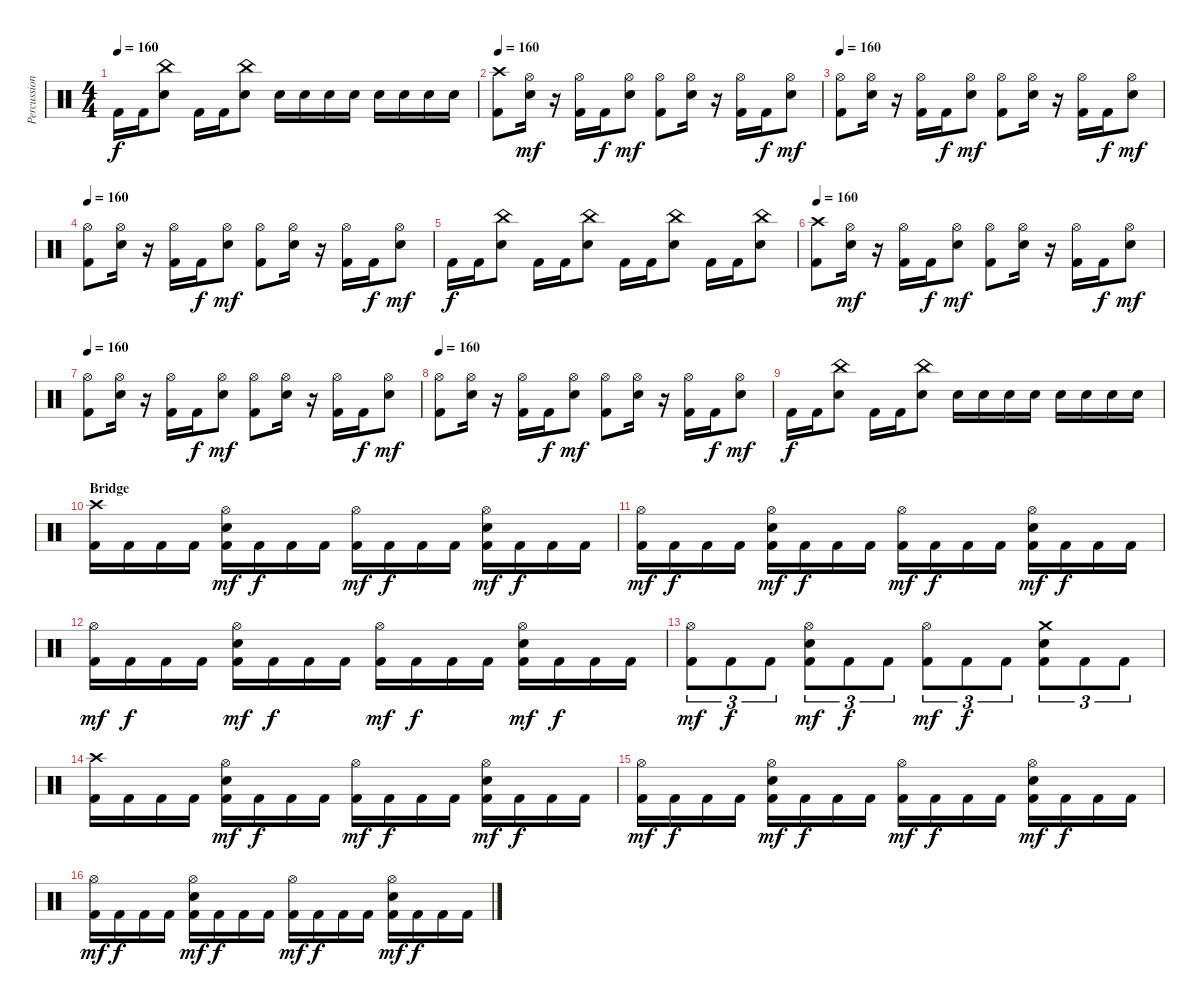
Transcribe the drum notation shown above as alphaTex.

\track ("Percussion" "Percussion") {instrument percussion}
\staff {score}
\articulation defaults
\ts (4 4)
\tempo 160
\clef neutral
\ks c "Kick (hit) 2".16{dy f} "Kick (hit) 2".16
("China (hit)" "Electric Snare (hit)").8 "Kick (hit) 2".16 "Kick (hit) 2".16 ("China (hit)" "Electric Snare (hit)").8 "Electric Snare (hit)".16 "Electric Snare (hit)".16 "Electric Snare (hit)".16 "Electric Snare (hit)".16 "Electric Snare (hit)".16 "Electric Snare (hit)".16 "Electric Snare (hit)".16 "Electric Snare (hit)".16 |
\tempo 160
("Crash high (hit)" "Kick (hit) 2").8 ("Hi-Hat (open)" "Electric Snare (hit)").16{dy mf} r.16 ("Hi-Hat (open)" "Kick (hit) 2").16 "Kick (hit) 2".16{dy f} ("Hi-Hat (open)" "Electric Snare (hit)").8{dy mf} ("Hi-Hat (open)" "Kick (hit) 2").8 ("Hi-Hat (open)" "Electric Snare (hit)").16 r.16 ("Hi-Hat (open)" "Kick (hit) 2").16 "Kick (hit) 2".16{dy f} ("Hi-Hat (open)" "Electric Snare (hit)").8{dy mf} |
\tempo 160
("Hi-Hat (open)" "Kick (hit) 2").8 ("Hi-Hat (open)" "Electric Snare (hit)").16 r.16 ("Hi-Hat (open)" "Kick (hit) 2").16 "Kick (hit) 2".16{dy f} ("Hi-Hat (open)" "Electric Snare (hit)").8{dy mf} ("Hi-Hat (open)" "Kick (hit) 2").8 ("Hi-Hat (open)" "Electric Snare (hit)").16 r.16 ("Hi-Hat (open)" "Kick (hit) 2").16 "Kick (hit) 2".16{dy f} ("Hi-Hat (open)" "Electric Snare (hit)").8{dy mf} |
\tempo 160
("Hi-Hat (open)" "Kick (hit) 2").8 ("Hi-Hat (open)" "Electric Snare (hit)").16 r.16 ("Hi-Hat (open)" "Kick (hit) 2").16 "Kick (hit) 2".16{dy f} ("Hi-Hat (open)" "Electric Snare (hit)").8{dy mf} ("Hi-Hat (open)" "Kick (hit) 2").8 ("Hi-Hat (open)" "Electric Snare (hit)").16 r.16 ("Hi-Hat (open)" "Kick (hit) 2").16 "Kick (hit) 2".16{dy f} ("Hi-Hat (open)" "Electric Snare (hit)").8{dy mf} |
"Kick (hit) 2".16{dy f} "Kick (hit) 2".16 ("China (hit)" "Electric Snare (hit)").8 "Kick (hit) 2".16 "Kick (hit) 2".16 ("China (hit)" "Electric Snare (hit)").8 "Kick (hit) 2".16 "Kick (hit) 2".16 ("China (hit)" "Electric Snare (hit)").8 "Kick (hit) 2".16 "Kick (hit) 2".16 ("China (hit)" "Electric Snare (hit)").8 |
\tempo 160
("Crash high (hit)" "Kick (hit) 2").8 ("Hi-Hat (open)" "Electric Snare (hit)").16{dy mf} r.16 ("Hi-Hat (open)" "Kick (hit) 2").16 "Kick (hit) 2".16{dy f} ("Hi-Hat (open)" "Electric Snare (hit)").8{dy mf} ("Hi-Hat (open)" "Kick (hit) 2").8 ("Hi-Hat (open)" "Electric Snare (hit)").16 r.16 ("Hi-Hat (open)" "Kick (hit) 2").16 "Kick (hit) 2".16{dy f} ("Hi-Hat (open)" "Electric Snare (hit)").8{dy mf} |
\tempo 160
("Hi-Hat (open)" "Kick (hit) 2").8 ("Hi-Hat (open)" "Electric Snare (hit)").16 r.16 ("Hi-Hat (open)" "Kick (hit) 2").16 "Kick (hit) 2".16{dy f} ("Hi-Hat (open)" "Electric Snare (hit)").8{dy mf} ("Hi-Hat (open)" "Kick (hit) 2").8 ("Hi-Hat (open)" "Electric Snare (hit)").16 r.16 ("Hi-Hat (open)" "Kick (hit) 2").16 "Kick (hit) 2".16{dy f} ("Hi-Hat (open)" "Electric Snare (hit)").8{dy mf} |
\tempo 160
("Hi-Hat (open)" "Kick (hit) 2").8 ("Hi-Hat (open)" "Electric Snare (hit)").16 r.16 ("Hi-Hat (open)" "Kick (hit) 2").16 "Kick (hit) 2".16{dy f} ("Hi-Hat (open)" "Electric Snare (hit)").8{dy mf} ("Hi-Hat (open)" "Kick (hit) 2").8 ("Hi-Hat (open)" "Electric Snare (hit)").16 r.16 ("Hi-Hat (open)" "Kick (hit) 2").16 "Kick (hit) 2".16{dy f} ("Hi-Hat (open)" "Electric Snare (hit)").8{dy mf} |
"Kick (hit) 2".16{dy f} "Kick (hit) 2".16 ("China (hit)" "Electric Snare (hit)").8 "Kick (hit) 2".16 "Kick (hit) 2".16 ("China (hit)" "Electric Snare (hit)").8 "Electric Snare (hit)".16 "Electric Snare (hit)".16 "Electric Snare (hit)".16 "Electric Snare (hit)".16 "Electric Snare (hit)".16 "Electric Snare (hit)".16 "Electric Snare (hit)".16 "Electric Snare (hit)".16 |
\section ("" "Bridge")
("Crash high (hit)" "Kick (hit) 2").16 "Kick (hit) 2".16 "Kick (hit) 2".16 "Kick (hit) 2".16 ("Hi-Hat (open)" "Electric Snare (hit)" "Kick (hit) 2").16{dy mf} "Kick (hit) 2".16{dy f} "Kick (hit) 2".16 "Kick (hit) 2".16 ("Hi-Hat (open)" "Kick (hit) 2").16{dy mf} "Kick (hit) 2".16{dy f} "Kick (hit) 2".16 "Kick (hit) 2".16 ("Hi-Hat (open)" "Electric Snare (hit)" "Kick (hit) 2").16{dy mf} "Kick (hit) 2".16{dy f} "Kick (hit) 2".16 "Kick (hit) 2".16 |
("Hi-Hat (open)" "Kick (hit) 2").16{dy mf} "Kick (hit) 2".16{dy f} "Kick (hit) 2".16 "Kick (hit) 2".16 ("Hi-Hat (open)" "Electric Snare (hit)" "Kick (hit) 2").16{dy mf} "Kick (hit) 2".16{dy f} "Kick (hit) 2".16 "Kick (hit) 2".16 ("Hi-Hat (open)" "Kick (hit) 2").16{dy mf} "Kick (hit) 2".16{dy f} "Kick (hit) 2".16 "Kick (hit) 2".16 ("Hi-Hat (open)" "Electric Snare (hit)" "Kick (hit) 2").16{dy mf} "Kick (hit) 2".16{dy f} "Kick (hit) 2".16 "Kick (hit) 2".16 |
("Hi-Hat (open)" "Kick (hit) 2").16{dy mf} "Kick (hit) 2".16{dy f} "Kick (hit) 2".16 "Kick (hit) 2".16 ("Hi-Hat (open)" "Electric Snare (hit)" "Kick (hit) 2").16{dy mf} "Kick (hit) 2".16{dy f} "Kick (hit) 2".16 "Kick (hit) 2".16 ("Hi-Hat (open)" "Kick (hit) 2").16{dy mf} "Kick (hit) 2".16{dy f} "Kick (hit) 2".16 "Kick (hit) 2".16 ("Hi-Hat (open)" "Electric Snare (hit)" "Kick (hit) 2").16{dy mf} "Kick (hit) 2".16{dy f} "Kick (hit) 2".16 "Kick (hit) 2".16 |
("Hi-Hat (open)" "Kick (hit) 2").8{tu (3 2) dy mf} "Kick (hit) 2".8{tu (3 2) dy f} "Kick (hit) 2".8{tu (3 2)} ("Hi-Hat (open)" "Electric Snare (hit)" "Kick (hit) 2").8{tu (3 2) dy mf} "Kick (hit) 2".8{tu (3 2) dy f} "Kick (hit) 2".8{tu (3 2)} ("Hi-Hat (open)" "Kick (hit) 2").8{tu (3 2) dy mf} "Kick (hit) 2".8{tu (3 2) dy f} "Kick (hit) 2".8{tu (3 2)} ("Crash medium (hit)" "Electric Snare (hit)" "Kick (hit) 2").8{tu (3 2)} "Kick (hit) 2".8{tu (3 2)} "Kick (hit) 2".8{tu (3 2)} |
("Crash high (hit)" "Kick (hit) 2").16 "Kick (hit) 2".16 "Kick (hit) 2".16 "Kick (hit) 2".16 ("Hi-Hat (open)" "Electric Snare (hit)" "Kick (hit) 2").16{dy mf} "Kick (hit) 2".16{dy f} "Kick (hit) 2".16 "Kick (hit) 2".16 ("Hi-Hat (open)" "Kick (hit) 2").16{dy mf} "Kick (hit) 2".16{dy f} "Kick (hit) 2".16 "Kick (hit) 2".16 ("Hi-Hat (open)" "Electric Snare (hit)" "Kick (hit) 2").16{dy mf} "Kick (hit) 2".16{dy f} "Kick (hit) 2".16 "Kick (hit) 2".16 |
("Hi-Hat (open)" "Kick (hit) 2").16{dy mf} "Kick (hit) 2".16{dy f} "Kick (hit) 2".16 "Kick (hit) 2".16 ("Hi-Hat (open)" "Electric Snare (hit)" "Kick (hit) 2").16{dy mf} "Kick (hit) 2".16{dy f} "Kick (hit) 2".16 "Kick (hit) 2".16 ("Hi-Hat (open)" "Kick (hit) 2").16{dy mf} "Kick (hit) 2".16{dy f} "Kick (hit) 2".16 "Kick (hit) 2".16 ("Hi-Hat (open)" "Electric Snare (hit)" "Kick (hit) 2").16{dy mf} "Kick (hit) 2".16{dy f} "Kick (hit) 2".16 "Kick (hit) 2".16 |
("Hi-Hat (open)" "Kick (hit) 2").16{dy mf} "Kick (hit) 2".16{dy f} "Kick (hit) 2".16 "Kick (hit) 2".16 ("Hi-Hat (open)" "Electric Snare (hit)" "Kick (hit) 2").16{dy mf} "Kick (hit) 2".16{dy f} "Kick (hit) 2".16 "Kick (hit) 2".16 ("Hi-Hat (open)" "Kick (hit) 2").16{dy mf} "Kick (hit) 2".16{dy f} "Kick (hit) 2".16 "Kick (hit) 2".16 ("Hi-Hat (open)" "Electric Snare (hit)" "Kick (hit) 2").16{dy mf} "Kick (hit) 2".16{dy f} "Kick (hit) 2".16 "Kick (hit) 2".16
